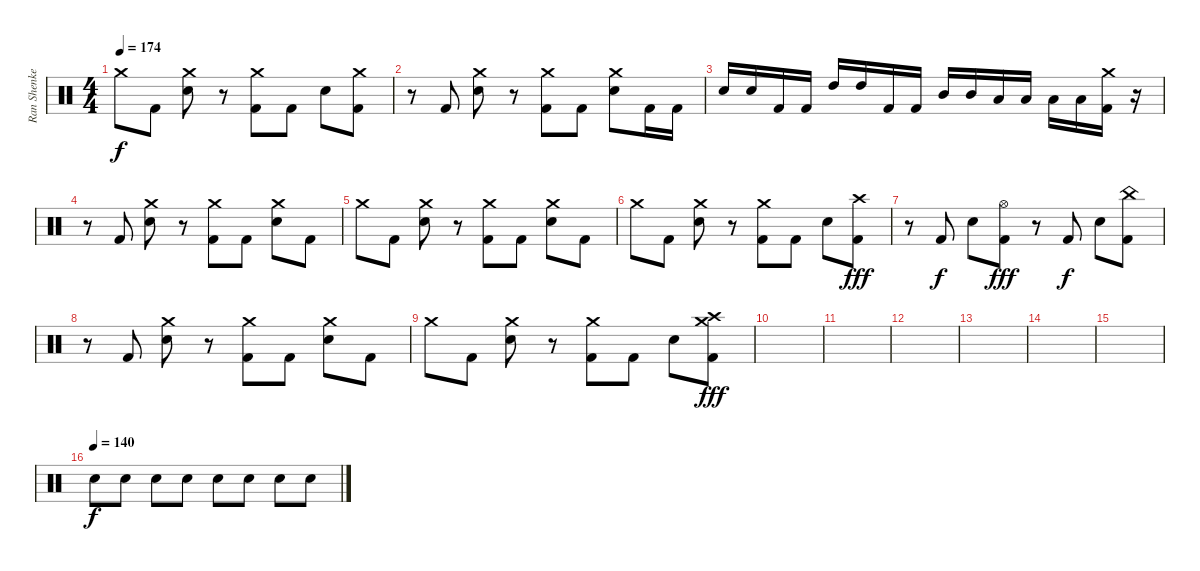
\track ("Ran Shenkerman" "Ran Shenke") {instrument percussion}
\staff {score}
\articulation defaults
\ts (4 4)
\tempo 174
\clef neutral
\ks c "Crash medium (hit)".8{dy f} "Kick (hit) 2".8
("Crash medium (hit)" "Snare (hit) 2").8 r.8 ("Crash medium (hit)" "Kick (hit) 2").8 "Kick (hit) 2".8 "Snare (hit) 2".8 ("Crash medium (hit)" "Kick (hit) 2").8 |
r.8 "Kick (hit) 2".8 ("Crash medium (hit)" "Snare (hit) 2").8 r.8 ("Crash medium (hit)" "Kick (hit) 2").8 "Kick (hit) 2".8 ("Crash medium (hit)" "Snare (hit) 2").8 "Kick (hit) 2".16 "Kick (hit) 2".16 |
"Snare (hit) 2".16 "Snare (hit) 2".16 "Kick (hit) 2".16 "Kick (hit) 2".16 "High Tom (hit)".16 "High Tom (hit)".16 "Kick (hit) 2".16 "Kick (hit) 2".16 "Mid Tom (hit)".16 "Mid Tom (hit)".16 "Low Tom (hit)".16 "Low Tom (hit)".16 "Low Floor Tom (hit)".16 "Low Floor Tom (hit)".16 ("Crash medium (hit)" "Kick (hit) 2").16 r.16 |
r.8 "Kick (hit) 2".8 ("Crash medium (hit)" "Snare (hit) 2").8 r.8 ("Crash medium (hit)" "Kick (hit) 2").8 "Kick (hit) 2".8 ("Crash medium (hit)" "Snare (hit) 2").8 "Kick (hit) 2".8 |
"Crash medium (hit)".8 "Kick (hit) 2".8 ("Crash medium (hit)" "Snare (hit) 2").8 r.8 ("Crash medium (hit)" "Kick (hit) 2").8 "Kick (hit) 2".8 ("Crash medium (hit)" "Snare (hit) 2").8 "Kick (hit) 2".8 |
"Crash medium (hit)".8 "Kick (hit) 2".8 ("Crash medium (hit)" "Snare (hit) 2").8 r.8 ("Crash medium (hit)" "Kick (hit) 2").8 "Kick (hit) 2".8 "Snare (hit) 2".8 ("Crash high (hit)" "Kick (hit) 2").8{dy fff} |
r.8 "Kick (hit) 2".8{dy f} "Snare (hit) 2".8 ("Hi-Hat (open)" "Kick (hit) 2").8{dy fff} r.8 "Kick (hit) 2".8{dy f} "Snare (hit) 2".8 ("China (hit)" "Kick (hit) 2").8 |
r.8 "Kick (hit) 2".8 ("Crash medium (hit)" "Snare (hit) 2").8 r.8 ("Crash medium (hit)" "Kick (hit) 2").8 "Kick (hit) 2".8 ("Crash medium (hit)" "Snare (hit) 2").8 "Kick (hit) 2".8 |
"Crash medium (hit)".8 "Kick (hit) 2".8 ("Crash medium (hit)" "Snare (hit) 2").8 r.8 ("Crash medium (hit)" "Kick (hit) 2").8 "Kick (hit) 2".8 "Snare (hit) 2".8 ("Crash medium (hit)" "Crash high (hit)" "Kick (hit) 2").8{dy fff} |
|
|
|
|
|
|
\tempo (140)
"Snare (hit) 2".8{dy f} "Snare (hit) 2".8 "Snare (hit) 2".8 "Snare (hit) 2".8 "Snare (hit) 2".8 "Snare (hit) 2".8 "Snare (hit) 2".8 "Snare (hit) 2".8
